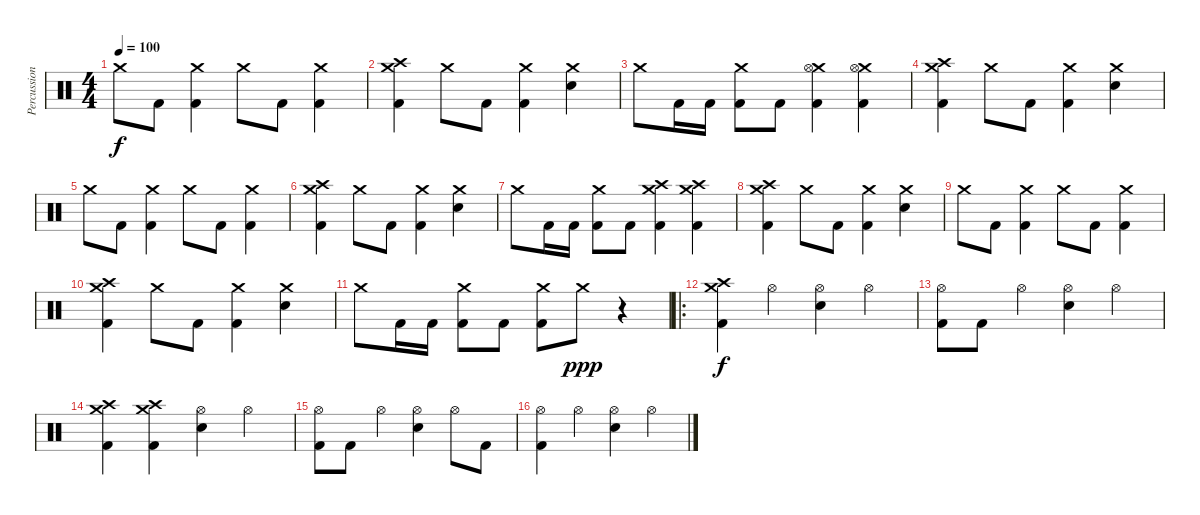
\track ("Percussion" "Percussion") {instrument percussion}
\staff {score}
\articulation defaults
\ts (4 4)
\tempo 100
\clef neutral
\ks c "Crash medium (hit)".8{dy f} "Kick (hit) 2".8
("Crash medium (hit)" "Kick (hit) 2").4 "Crash medium (hit)".8 "Kick (hit) 2".8 ("Crash medium (hit)" "Kick (hit) 2").4 |
("Crash high (hit)" "Crash medium (hit)" "Kick (hit) 2").4 "Crash medium (hit)".8 "Kick (hit) 2".8 ("Crash medium (hit)" "Kick (hit) 2").4 ("Crash medium (hit)" "Snare (hit) 2").4 |
"Crash medium (hit)".8 "Kick (hit) 2".16 "Kick (hit) 2".16 ("Crash medium (hit)" "Kick (hit) 2").8 "Kick (hit) 2".8 ("Crash medium (hit)" "Hi-Hat (open)" "Kick (hit) 2").4 ("Crash medium (hit)" "Hi-Hat (open)" "Kick (hit) 2").4 |
("Crash high (hit)" "Crash medium (hit)" "Kick (hit) 2").4 "Crash medium (hit)".8 "Kick (hit) 2".8 ("Crash medium (hit)" "Kick (hit) 2").4 ("Crash medium (hit)" "Snare (hit) 2").4 |
"Crash medium (hit)".8 "Kick (hit) 2".8 ("Crash medium (hit)" "Kick (hit) 2").4 "Crash medium (hit)".8 "Kick (hit) 2".8 ("Crash medium (hit)" "Kick (hit) 2").4 |
("Crash high (hit)" "Crash medium (hit)" "Kick (hit) 2").4 "Crash medium (hit)".8 "Kick (hit) 2".8 ("Crash medium (hit)" "Kick (hit) 2").4 ("Crash medium (hit)" "Snare (hit) 2").4 |
"Crash medium (hit)".8 "Kick (hit) 2".16 "Kick (hit) 2".16 ("Crash medium (hit)" "Kick (hit) 2").8 "Kick (hit) 2".8 ("Crash medium (hit)" "Crash high (hit)" "Kick (hit) 2").4 ("Crash medium (hit)" "Crash high (hit)" "Kick (hit) 2").4 |
("Crash high (hit)" "Crash medium (hit)" "Kick (hit) 2").4 "Crash medium (hit)".8 "Kick (hit) 2".8 ("Crash medium (hit)" "Kick (hit) 2").4 ("Crash medium (hit)" "Snare (hit) 2").4 |
"Crash medium (hit)".8 "Kick (hit) 2".8 ("Crash medium (hit)" "Kick (hit) 2").4 "Crash medium (hit)".8 "Kick (hit) 2".8 ("Crash medium (hit)" "Kick (hit) 2").4 |
("Crash high (hit)" "Crash medium (hit)" "Kick (hit) 2").4 "Crash medium (hit)".8 "Kick (hit) 2".8 ("Crash medium (hit)" "Kick (hit) 2").4 ("Crash medium (hit)" "Snare (hit) 2").4 |
"Crash medium (hit)".8 "Kick (hit) 2".16 "Kick (hit) 2".16 ("Crash medium (hit)" "Kick (hit) 2").8 "Kick (hit) 2".8 ("Crash medium (hit)" "Kick (hit) 2").8 "Crash medium (hit)".8{dy ppp} r.4 |
\ro
("Crash high (hit)" "Crash medium (hit)" "Kick (hit) 2").4{dy f} "Hi-Hat (open)".4 ("Hi-Hat (open)" "Snare (hit) 2").4 "Hi-Hat (open)".4 |
("Hi-Hat (open)" "Kick (hit) 2").8 "Kick (hit) 2".8 "Hi-Hat (open)".4 ("Hi-Hat (open)" "Snare (hit) 2").4 "Hi-Hat (open)".4 |
("Crash high (hit)" "Crash medium (hit)" "Kick (hit) 2").4 ("Crash high (hit)" "Crash medium (hit)" "Kick (hit) 2").4 ("Hi-Hat (open)" "Snare (hit) 2").4 "Hi-Hat (open)".4 |
("Hi-Hat (open)" "Kick (hit) 2").8 "Kick (hit) 2".8 "Hi-Hat (open)".4 ("Hi-Hat (open)" "Snare (hit) 2").4 "Hi-Hat (open)".8 "Kick (hit) 2".8 |
("Hi-Hat (open)" "Kick (hit) 2").4 "Hi-Hat (open)".4 ("Hi-Hat (open)" "Snare (hit) 2").4 "Hi-Hat (open)".4
